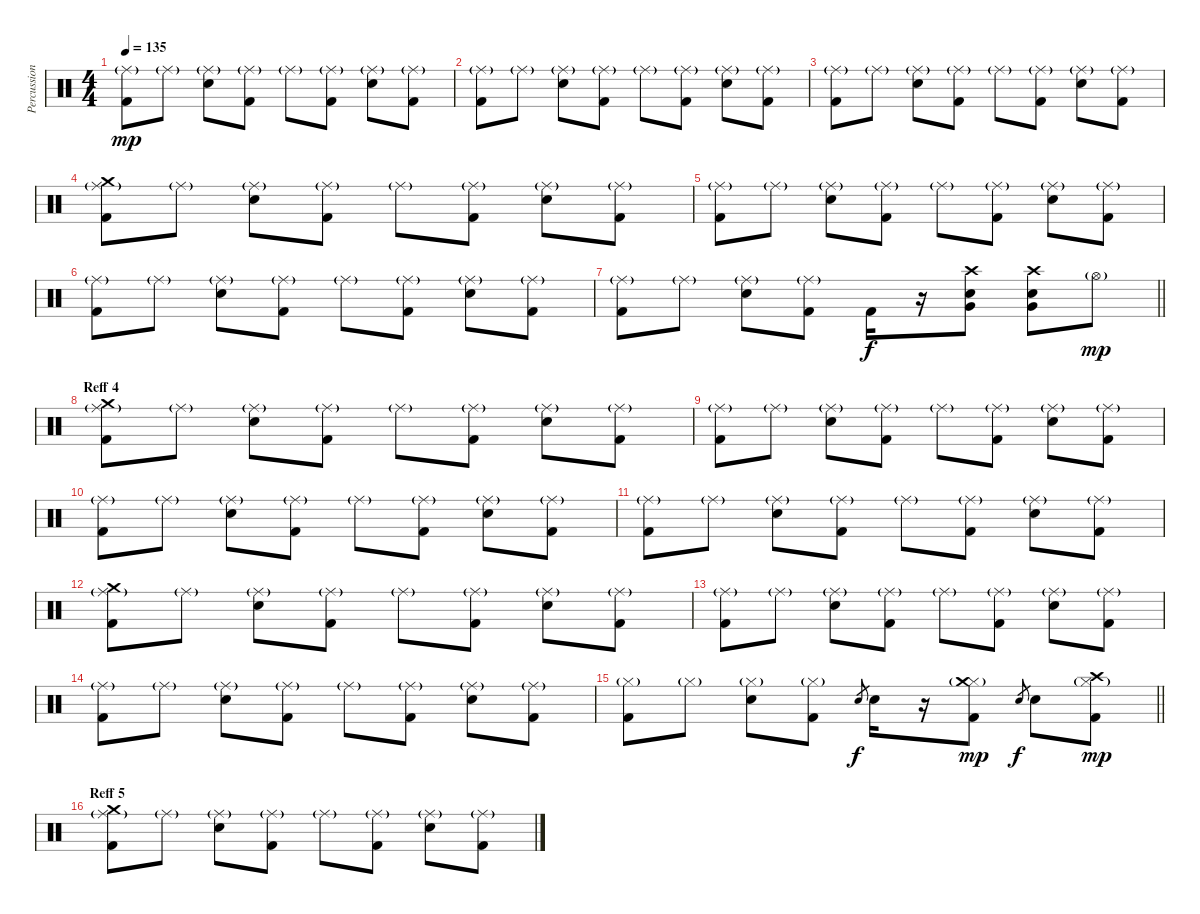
\track ("Percussion 1" "Percussion") {instrument percussion}
\staff {score}
\articulation defaults
\ts (4 4)
\tempo 135
\clef neutral
\ks c
("Ride (middle)"{g} "Kick (hit) 2").8{dy mp} "Ride (middle)"{g}.8 ("Ride (middle)"{g} "Electric Snare (hit)").8 ("Ride (middle)"{g} "Kick (hit) 2").8 "Ride (middle)"{g}.8 ("Ride (middle)"{g} "Kick (hit) 2").8 ("Ride (middle)"{g} "Electric Snare (hit)").8 ("Ride (middle)"{g} "Kick (hit) 2").8 |
("Ride (middle)"{g} "Kick (hit) 2").8 "Ride (middle)"{g}.8 ("Ride (middle)"{g} "Electric Snare (hit)").8 ("Ride (middle)"{g} "Kick (hit) 2").8 "Ride (middle)"{g}.8 ("Ride (middle)"{g} "Kick (hit) 2").8 ("Ride (middle)"{g} "Electric Snare (hit)").8 ("Ride (middle)"{g} "Kick (hit) 2").8 |
("Ride (middle)"{g} "Kick (hit) 2").8 "Ride (middle)"{g}.8 ("Ride (middle)"{g} "Electric Snare (hit)").8 ("Ride (middle)"{g} "Kick (hit) 2").8 "Ride (middle)"{g}.8 ("Ride (middle)"{g} "Kick (hit) 2").8 ("Ride (middle)"{g} "Electric Snare (hit)").8 ("Ride (middle)"{g} "Kick (hit) 2").8 |
("Ride (middle)"{g} "Crash medium (hit)" "Kick (hit) 2").8 "Ride (middle)"{g}.8 ("Ride (middle)"{g} "Electric Snare (hit)").8 ("Ride (middle)"{g} "Kick (hit) 2").8 "Ride (middle)"{g}.8 ("Ride (middle)"{g} "Kick (hit) 2").8 ("Ride (middle)"{g} "Electric Snare (hit)").8 ("Ride (middle)"{g} "Kick (hit) 2").8 |
("Ride (middle)"{g} "Kick (hit) 2").8 "Ride (middle)"{g}.8 ("Ride (middle)"{g} "Electric Snare (hit)").8 ("Ride (middle)"{g} "Kick (hit) 2").8 "Ride (middle)"{g}.8 ("Ride (middle)"{g} "Kick (hit) 2").8 ("Ride (middle)"{g} "Electric Snare (hit)").8 ("Ride (middle)"{g} "Kick (hit) 2").8 |
("Ride (middle)"{g} "Kick (hit) 2").8 "Ride (middle)"{g}.8 ("Ride (middle)"{g} "Electric Snare (hit)").8 ("Ride (middle)"{g} "Kick (hit) 2").8 "Ride (middle)"{g}.8 ("Ride (middle)"{g} "Kick (hit) 2").8 ("Ride (middle)"{g} "Electric Snare (hit)").8 ("Ride (middle)"{g} "Kick (hit) 2").8 |
\barLineRight lightlight
("Ride (middle)"{g} "Kick (hit) 2").8 "Ride (middle)"{g}.8 ("Ride (middle)"{g} "Electric Snare (hit)").8 ("Ride (middle)"{g} "Kick (hit) 2").8 "Kick (hit) 2".16{dy f} r.16 ("Electric Snare (hit)" "Very Low Tom (hit)" "Crash high (hit)").8 ("Electric Snare (hit)" "Very Low Tom (hit)" "Crash high (hit)").8 "Hi-Hat (open)"{g}.8{dy mp} |
\section ("" "Reff 4")
("Ride (middle)"{g} "Crash medium (hit)" "Kick (hit) 2").8 "Ride (middle)"{g}.8 ("Ride (middle)"{g} "Electric Snare (hit)").8 ("Ride (middle)"{g} "Kick (hit) 2").8 "Ride (middle)"{g}.8 ("Ride (middle)"{g} "Kick (hit) 2").8 ("Ride (middle)"{g} "Electric Snare (hit)").8 ("Ride (middle)"{g} "Kick (hit) 2").8 |
("Ride (middle)"{g} "Kick (hit) 2").8 "Ride (middle)"{g}.8 ("Ride (middle)"{g} "Electric Snare (hit)").8 ("Ride (middle)"{g} "Kick (hit) 2").8 "Ride (middle)"{g}.8 ("Ride (middle)"{g} "Kick (hit) 2").8 ("Ride (middle)"{g} "Electric Snare (hit)").8 ("Ride (middle)"{g} "Kick (hit) 2").8 |
("Ride (middle)"{g} "Kick (hit) 2").8 "Ride (middle)"{g}.8 ("Ride (middle)"{g} "Electric Snare (hit)").8 ("Ride (middle)"{g} "Kick (hit) 2").8 "Ride (middle)"{g}.8 ("Ride (middle)"{g} "Kick (hit) 2").8 ("Ride (middle)"{g} "Electric Snare (hit)").8 ("Ride (middle)"{g} "Kick (hit) 2").8 |
("Ride (middle)"{g} "Kick (hit) 2").8 "Ride (middle)"{g}.8 ("Ride (middle)"{g} "Electric Snare (hit)").8 ("Ride (middle)"{g} "Kick (hit) 2").8 "Ride (middle)"{g}.8 ("Ride (middle)"{g} "Kick (hit) 2").8 ("Ride (middle)"{g} "Electric Snare (hit)").8 ("Ride (middle)"{g} "Kick (hit) 2").8 |
("Ride (middle)"{g} "Crash medium (hit)" "Kick (hit) 2").8 "Ride (middle)"{g}.8 ("Ride (middle)"{g} "Electric Snare (hit)").8 ("Ride (middle)"{g} "Kick (hit) 2").8 "Ride (middle)"{g}.8 ("Ride (middle)"{g} "Kick (hit) 2").8 ("Ride (middle)"{g} "Electric Snare (hit)").8 ("Ride (middle)"{g} "Kick (hit) 2").8 |
("Ride (middle)"{g} "Kick (hit) 2").8 "Ride (middle)"{g}.8 ("Ride (middle)"{g} "Electric Snare (hit)").8 ("Ride (middle)"{g} "Kick (hit) 2").8 "Ride (middle)"{g}.8 ("Ride (middle)"{g} "Kick (hit) 2").8 ("Ride (middle)"{g} "Electric Snare (hit)").8 ("Ride (middle)"{g} "Kick (hit) 2").8 |
("Ride (middle)"{g} "Kick (hit) 2").8 "Ride (middle)"{g}.8 ("Ride (middle)"{g} "Electric Snare (hit)").8 ("Ride (middle)"{g} "Kick (hit) 2").8 "Ride (middle)"{g}.8 ("Ride (middle)"{g} "Kick (hit) 2").8 ("Ride (middle)"{g} "Electric Snare (hit)").8 ("Ride (middle)"{g} "Kick (hit) 2").8 |
\barLineRight lightlight
("Hi-Hat (closed)"{g} "Kick (hit) 2").8 "Hi-Hat (closed)"{g}.8 ("Hi-Hat (closed)"{g} "Electric Snare (hit)").8 ("Hi-Hat (closed)"{g} "Kick (hit) 2").8 "Electric Snare (hit)".8{gr dy f} "Electric Snare (hit)".16 r.16 ("Hi-Hat (closed)"{g} "Crash medium (hit)" "Kick (hit) 2").8{dy mp} "Electric Snare (hit)".8{gr dy f} "Electric Snare (hit)".8 ("Hi-Hat (closed)"{g} "Crash high (hit)" "Kick (hit) 2").8{dy mp} |
\section ("" "Reff 5")
("Ride (middle)"{g} "Crash medium (hit)" "Kick (hit) 2").8 "Ride (middle)"{g}.8 ("Ride (middle)"{g} "Electric Snare (hit)").8 ("Ride (middle)"{g} "Kick (hit) 2").8 "Ride (middle)"{g}.8 ("Ride (middle)"{g} "Kick (hit) 2").8 ("Ride (middle)"{g} "Electric Snare (hit)").8 ("Ride (middle)"{g} "Kick (hit) 2").8
